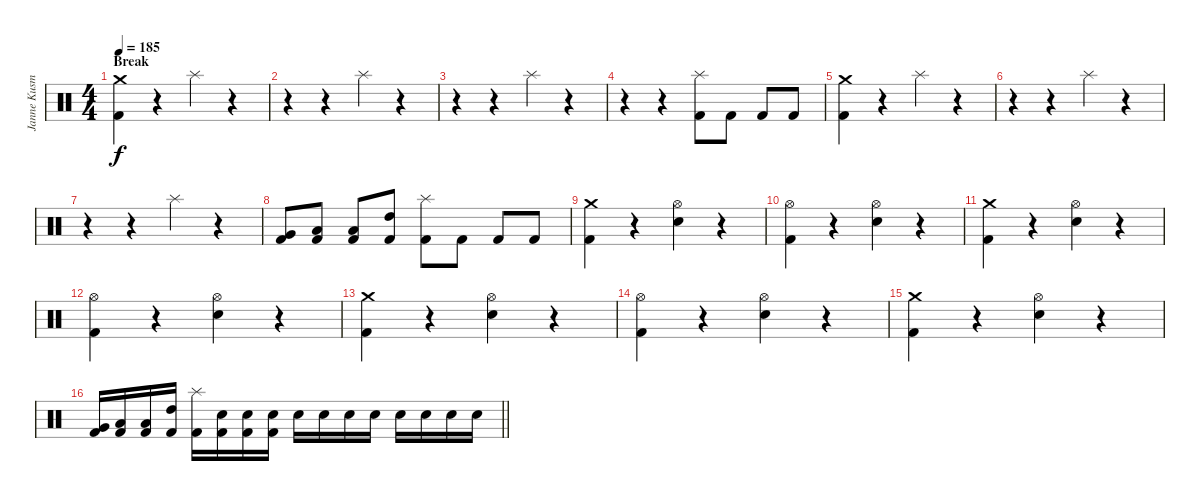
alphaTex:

\track ("Janne Kusmin" "Janne Kusm") {instrument percussion}
\staff {score}
\articulation defaults
\ts (4 4)
\section ("" "Break")
\tempo 185
\clef neutral
\ks c
("Crash medium (hit)" "Kick (hit) 2").4{dy f} r.4 "Splash (hit)".4 r.4 |
r.4 r.4 "Splash (hit)".4 r.4 |
r.4 r.4 "Splash (hit)".4 r.4 |
r.4 r.4 ("Splash (hit)" "Kick (hit) 2").8 "Kick (hit) 2".8 "Kick (hit) 2".8 "Kick (hit) 2".8 |
("Crash medium (hit)" "Kick (hit) 2").4 r.4 "Splash (hit)".4 r.4 |
r.4 r.4 "Splash (hit)".4 r.4 |
r.4 r.4 "Splash (hit)".4 r.4 |
("Very Low Tom (hit)" "Kick (hit) 2").8 ("Low Floor Tom (hit)" "Kick (hit) 2").8 ("Low Tom (hit)" "Kick (hit) 2").8 ("High Tom (hit)" "Kick (hit) 2").8 ("Splash (hit)" "Kick (hit) 2").8 "Kick (hit) 2".8 "Kick (hit) 2".8 "Kick (hit) 2".8 |
("Crash medium (hit)" "Kick (hit) 2").4 r.4 ("Hi-Hat (open)" "Electric Snare (hit)").4 r.4 |
("Hi-Hat (open)" "Kick (hit) 2").4 r.4 ("Hi-Hat (open)" "Electric Snare (hit)").4 r.4 |
("Crash medium (hit)" "Kick (hit) 2").4 r.4 ("Hi-Hat (open)" "Electric Snare (hit)").4 r.4 |
("Hi-Hat (open)" "Kick (hit) 2").4 r.4 ("Hi-Hat (open)" "Electric Snare (hit)").4 r.4 |
("Crash medium (hit)" "Kick (hit) 2").4 r.4 ("Hi-Hat (open)" "Electric Snare (hit)").4 r.4 |
("Hi-Hat (open)" "Kick (hit) 2").4 r.4 ("Hi-Hat (open)" "Electric Snare (hit)").4 r.4 |
("Crash medium (hit)" "Kick (hit) 2").4 r.4 ("Hi-Hat (open)" "Electric Snare (hit)").4 r.4 |
\barLineRight lightlight
("Very Low Tom (hit)" "Kick (hit) 2").16 ("Low Floor Tom (hit)" "Kick (hit) 2").16 ("Low Tom (hit)" "Kick (hit) 2").16 ("High Tom (hit)" "Kick (hit) 2").16 ("Splash (hit)" "Kick (hit) 2").16 ("Electric Snare (hit)" "Kick (hit) 2").16 ("Electric Snare (hit)" "Kick (hit) 2").16 ("Electric Snare (hit)" "Kick (hit) 2").16 "Electric Snare (hit)".16 "Electric Snare (hit)".16 "Electric Snare (hit)".16 "Electric Snare (hit)".16 "Electric Snare (hit)".16 "Electric Snare (hit)".16 "Electric Snare (hit)".16 "Electric Snare (hit)".16
